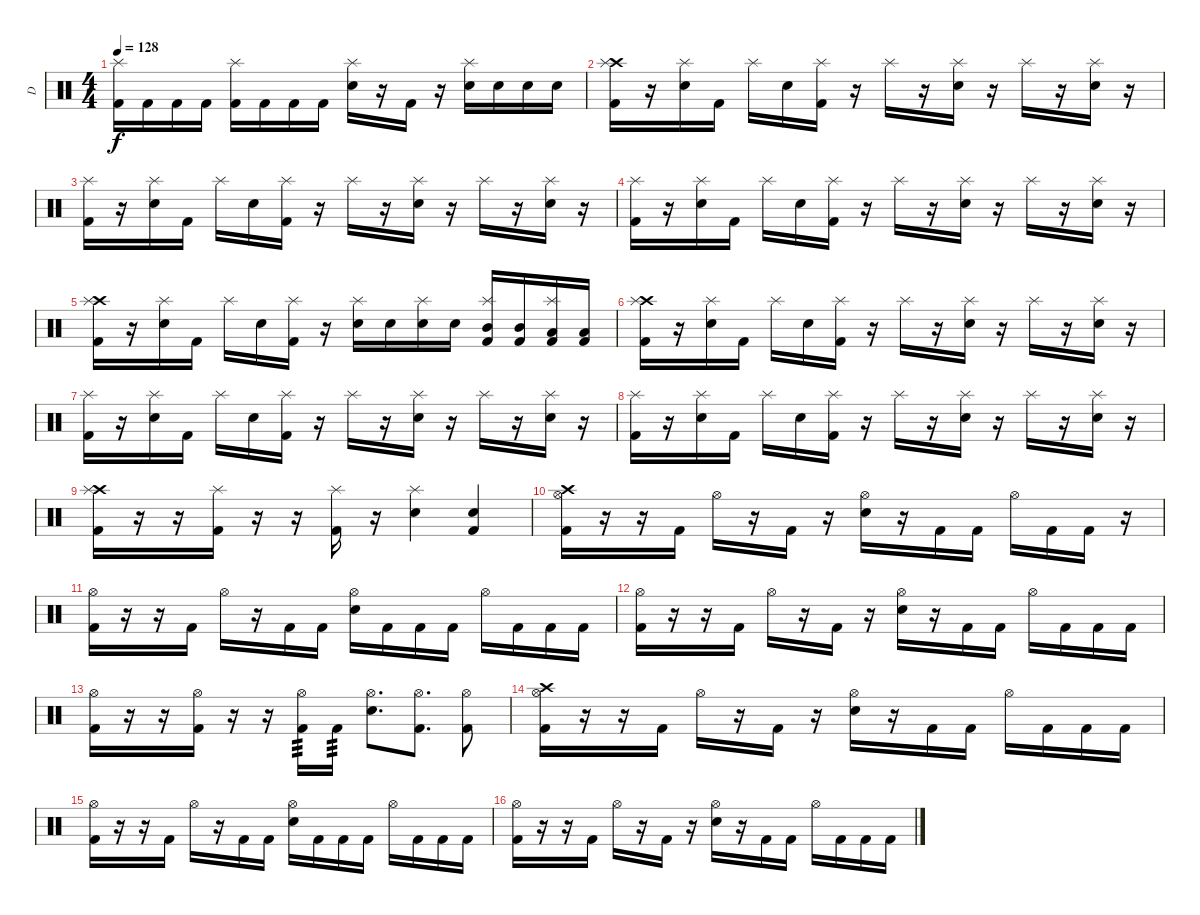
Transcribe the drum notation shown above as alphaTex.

\track ("D" "D") {instrument percussion}
\staff {score}
\articulation defaults
\ts (4 4)
\tempo 128
\clef neutral
\ks c
("Kick (hit) 2" "Splash (hit)").16{dy f} "Kick (hit) 2".16 "Kick (hit) 2".16 "Kick (hit) 2".16 ("Kick (hit) 2" "Splash (hit)").16 "Kick (hit) 2".16 "Kick (hit) 2".16 "Kick (hit) 2".16 ("Electric Snare (hit)" "Splash (hit)").16 r.16 "Kick (hit) 2".16 r.16 ("Electric Snare (hit)" "Splash (hit)").16 "Electric Snare (hit)".16 "Electric Snare (hit)".16 "Electric Snare (hit)".16 |
("Crash high (hit)" "Kick (hit) 2" "Splash (hit)").16 r.16 ("Electric Snare (hit)" "Splash (hit)").16 "Kick (hit) 2".16 "Splash (hit)".16 "Electric Snare (hit)".16 ("Kick (hit) 2" "Splash (hit)").16 r.16 "Splash (hit)".16 r.16 ("Electric Snare (hit)" "Splash (hit)").16 r.16 "Splash (hit)".16 r.16 ("Electric Snare (hit)" "Splash (hit)").16 r.16 |
("Kick (hit) 2" "Splash (hit)").16 r.16 ("Electric Snare (hit)" "Splash (hit)").16 "Kick (hit) 2".16 "Splash (hit)".16 "Electric Snare (hit)".16 ("Kick (hit) 2" "Splash (hit)").16 r.16 "Splash (hit)".16 r.16 ("Electric Snare (hit)" "Splash (hit)").16 r.16 "Splash (hit)".16 r.16 ("Electric Snare (hit)" "Splash (hit)").16 r.16 |
("Kick (hit) 2" "Splash (hit)").16 r.16 ("Electric Snare (hit)" "Splash (hit)").16 "Kick (hit) 2".16 "Splash (hit)".16 "Electric Snare (hit)".16 ("Kick (hit) 2" "Splash (hit)").16 r.16 "Splash (hit)".16 r.16 ("Electric Snare (hit)" "Splash (hit)").16 r.16 "Splash (hit)".16 r.16 ("Electric Snare (hit)" "Splash (hit)").16 r.16 |
("Crash high (hit)" "Kick (hit) 2" "Splash (hit)").16 r.16 ("Electric Snare (hit)" "Splash (hit)").16 "Kick (hit) 2".16 "Splash (hit)".16 "Electric Snare (hit)".16 ("Kick (hit) 2" "Splash (hit)").16 r.16 ("Electric Snare (hit)" "Splash (hit)").16 "Electric Snare (hit)".16 ("Electric Snare (hit)" "Splash (hit)").16 "Electric Snare (hit)".16 ("Mid Tom (hit)" "Kick (hit) 2" "Splash (hit)").16 ("Mid Tom (hit)" "Kick (hit) 2").16 ("Low Tom (hit)" "Kick (hit) 2" "Splash (hit)").16 ("Low Tom (hit)" "Kick (hit) 2").16 |
("Crash high (hit)" "Kick (hit) 2" "Splash (hit)").16 r.16 ("Electric Snare (hit)" "Splash (hit)").16 "Kick (hit) 2".16 "Splash (hit)".16 "Electric Snare (hit)".16 ("Kick (hit) 2" "Splash (hit)").16 r.16 "Splash (hit)".16 r.16 ("Electric Snare (hit)" "Splash (hit)").16 r.16 "Splash (hit)".16 r.16 ("Electric Snare (hit)" "Splash (hit)").16 r.16 |
("Kick (hit) 2" "Splash (hit)").16 r.16 ("Electric Snare (hit)" "Splash (hit)").16 "Kick (hit) 2".16 "Splash (hit)".16 "Electric Snare (hit)".16 ("Kick (hit) 2" "Splash (hit)").16 r.16 "Splash (hit)".16 r.16 ("Electric Snare (hit)" "Splash (hit)").16 r.16 "Splash (hit)".16 r.16 ("Electric Snare (hit)" "Splash (hit)").16 r.16 |
("Kick (hit) 2" "Splash (hit)").16 r.16 ("Electric Snare (hit)" "Splash (hit)").16 "Kick (hit) 2".16 "Splash (hit)".16 "Electric Snare (hit)".16 ("Kick (hit) 2" "Splash (hit)").16 r.16 "Splash (hit)".16 r.16 ("Electric Snare (hit)" "Splash (hit)").16 r.16 "Splash (hit)".16 r.16 ("Electric Snare (hit)" "Splash (hit)").16 r.16 |
("Crash high (hit)" "Kick (hit) 2" "Splash (hit)").16 r.16 r.16 ("Kick (hit) 2" "Splash (hit)").16 r.16 r.16 ("Kick (hit) 2" "Splash (hit)").16 r.16 ("Electric Snare (hit)" "Splash (hit)").4 ("Electric Snare (hit)" "Kick (hit) 2").4 |
("Crash high (hit)" "Kick (hit) 2" "Hi-Hat (open)").16 r.16 r.16 "Kick (hit) 2".16 "Hi-Hat (open)".16 r.16 "Kick (hit) 2".16 r.16 ("Electric Snare (hit)" "Hi-Hat (open)").16 r.16 "Kick (hit) 2".16 "Kick (hit) 2".16 "Hi-Hat (open)".16 "Kick (hit) 2".16 "Kick (hit) 2".16 r.16 |
("Kick (hit) 2" "Hi-Hat (open)").16 r.16 r.16 "Kick (hit) 2".16 "Hi-Hat (open)".16 r.16 "Kick (hit) 2".16 "Kick (hit) 2".16 ("Electric Snare (hit)" "Hi-Hat (open)").16 "Kick (hit) 2".16 "Kick (hit) 2".16 "Kick (hit) 2".16 "Hi-Hat (open)".16 "Kick (hit) 2".16 "Kick (hit) 2".16 "Kick (hit) 2".16 |
("Kick (hit) 2" "Hi-Hat (open)").16 r.16 r.16 "Kick (hit) 2".16 "Hi-Hat (open)".16 r.16 "Kick (hit) 2".16 r.16 ("Electric Snare (hit)" "Hi-Hat (open)").16 r.16 "Kick (hit) 2".16 "Kick (hit) 2".16 "Hi-Hat (open)".16 "Kick (hit) 2".16 "Kick (hit) 2".16 "Kick (hit) 2".16 |
("Kick (hit) 2" "Hi-Hat (open)").16 r.16 r.16 ("Kick (hit) 2" "Hi-Hat (open)").16 r.16 r.16 ("Kick (hit) 2" "Hi-Hat (open)").16{tp 3} "Kick (hit) 2".16{tp 3} ("Electric Snare (hit)" "Hi-Hat (open)").8{d} ("Kick (hit) 2" "Hi-Hat (open)").8{d} ("Kick (hit) 2" "Hi-Hat (open)").8 |
("Crash high (hit)" "Kick (hit) 2" "Hi-Hat (open)").16 r.16 r.16 "Kick (hit) 2".16 "Hi-Hat (open)".16 r.16 "Kick (hit) 2".16 r.16 ("Electric Snare (hit)" "Hi-Hat (open)").16 r.16 "Kick (hit) 2".16 "Kick (hit) 2".16 "Hi-Hat (open)".16 "Kick (hit) 2".16 "Kick (hit) 2".16 "Kick (hit) 2".16 |
("Kick (hit) 2" "Hi-Hat (open)").16 r.16 r.16 "Kick (hit) 2".16 "Hi-Hat (open)".16 r.16 "Kick (hit) 2".16 "Kick (hit) 2".16 ("Electric Snare (hit)" "Hi-Hat (open)").16 "Kick (hit) 2".16 "Kick (hit) 2".16 "Kick (hit) 2".16 "Hi-Hat (open)".16 "Kick (hit) 2".16 "Kick (hit) 2".16 "Kick (hit) 2".16 |
("Kick (hit) 2" "Hi-Hat (open)").16 r.16 r.16 "Kick (hit) 2".16 "Hi-Hat (open)".16 r.16 "Kick (hit) 2".16 r.16 ("Electric Snare (hit)" "Hi-Hat (open)").16 r.16 "Kick (hit) 2".16 "Kick (hit) 2".16 "Hi-Hat (open)".16 "Kick (hit) 2".16 "Kick (hit) 2".16 "Kick (hit) 2".16
